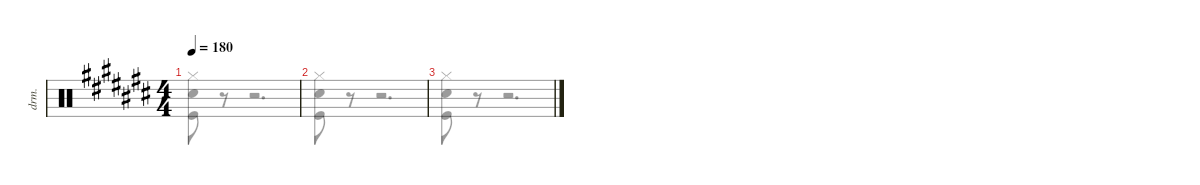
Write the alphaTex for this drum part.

\defaultSystemsLayout 4
\hideDynamics
\bracketExtendMode nobrackets
\otherSystemsTrackNameOrientation horizontal
\track ("Drumkit" "drm.") {instrument percussion}
\staff {score}
\articulation defaults
\voice
\ts (4 4)
\tempo 180
\clef neutral
\ks c#
|
|
\voice
\clef neutral
\ks c#
("Kick (hit)" "Hi-Hat (closed)" "Snare (hit) 2").8{dy mf} r.8 r.2{d} |
("Kick (hit)" "Hi-Hat (closed)" "Snare (hit) 2").8 r.8 r.2{d} |
("Kick (hit)" "Hi-Hat (closed)" "Snare (hit) 2").8 r.8 r.2{d}
